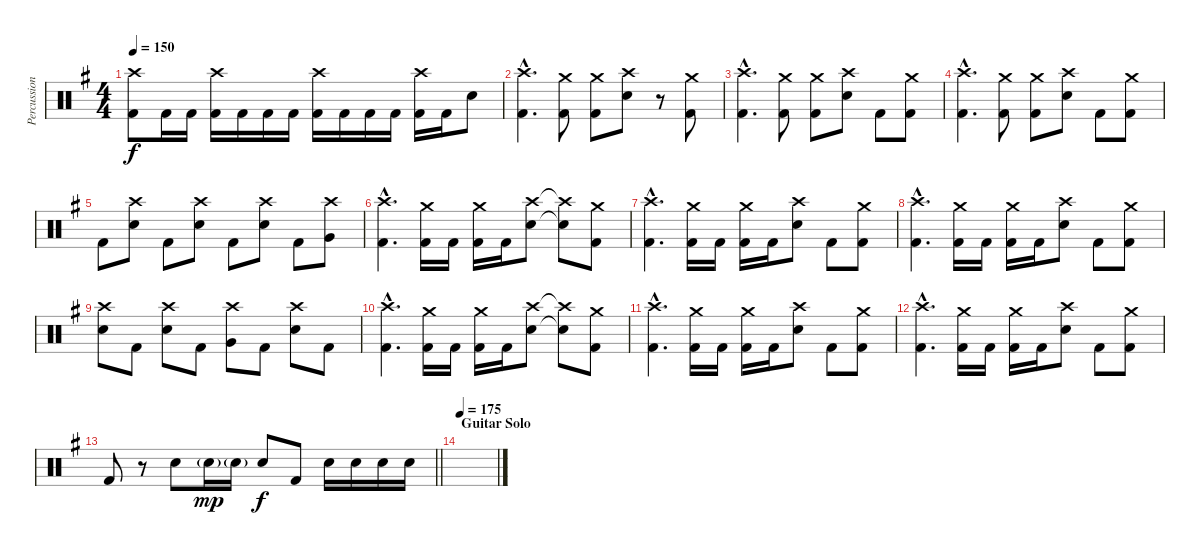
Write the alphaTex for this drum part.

\track ("Percussion" "Percussion") {instrument percussion}
\staff {score}
\articulation defaults
\ts (4 4)
\tempo 150
\clef neutral
\ks g
("Crash high (hit)" "Kick (hit) 2").8{dy f} "Kick (hit) 2".16 "Kick (hit) 2".16 ("Crash high (hit)" "Kick (hit) 2").16 "Kick (hit) 2".16 "Kick (hit) 2".16 "Kick (hit) 2".16 ("Crash high (hit)" "Kick (hit) 2").16 "Kick (hit) 2".16 "Kick (hit) 2".16 "Kick (hit) 2".16 ("Crash high (hit)" "Kick (hit) 2").16 "Kick (hit) 2".16 "Snare (hit) 2".8 |
("Crash high (hit)"{hac} "Kick (hit) 2"{hac}).4{d} ("Crash medium (hit)" "Kick (hit) 2").8 ("Crash medium (hit)" "Kick (hit) 2").8 ("Crash high (hit)" "Snare (hit) 2").8 r.8 ("Crash medium (hit)" "Kick (hit) 2").8 |
("Crash high (hit)"{hac} "Kick (hit) 2"{hac}).4{d} ("Crash medium (hit)" "Kick (hit) 2").8 ("Crash medium (hit)" "Kick (hit) 2").8 ("Crash high (hit)" "Snare (hit) 2").8 "Kick (hit) 2".8 ("Crash medium (hit)" "Kick (hit) 2").8 |
("Crash high (hit)"{hac} "Kick (hit) 2"{hac}).4{d} ("Crash medium (hit)" "Kick (hit) 2").8 ("Crash medium (hit)" "Kick (hit) 2").8 ("Crash high (hit)" "Snare (hit) 2").8 "Kick (hit) 2".8 ("Crash medium (hit)" "Kick (hit) 2").8 |
"Kick (hit) 2".8 ("Crash high (hit)" "Snare (hit) 2").8 "Kick (hit) 2".8 ("Crash high (hit)" "Snare (hit) 2").8 "Kick (hit) 2".8 ("Crash high (hit)" "Snare (hit) 2").8 "Kick (hit) 2".8 ("Crash high (hit)" "Very Low Tom (hit)").8 |
("Crash high (hit)"{hac} "Kick (hit) 2"{hac}).4{d} ("Crash medium (hit)" "Kick (hit) 2").16 "Kick (hit) 2".16 ("Crash medium (hit)" "Kick (hit) 2").16 "Kick (hit) 2".16 ("Crash high (hit)" "Snare (hit) 2").8 ("Crash high (hit)"{t} "Snare (hit) 2"{t}).8 ("Crash medium (hit)" "Kick (hit) 2").8 |
("Crash high (hit)"{hac} "Kick (hit) 2"{hac}).4{d} ("Crash medium (hit)" "Kick (hit) 2").16 "Kick (hit) 2".16 ("Crash medium (hit)" "Kick (hit) 2").16 "Kick (hit) 2".16 ("Crash high (hit)" "Snare (hit) 2").8 "Kick (hit) 2".8 ("Crash medium (hit)" "Kick (hit) 2").8 |
("Crash high (hit)"{hac} "Kick (hit) 2"{hac}).4{d} ("Crash medium (hit)" "Kick (hit) 2").16 "Kick (hit) 2".16 ("Crash medium (hit)" "Kick (hit) 2").16 "Kick (hit) 2".16 ("Crash high (hit)" "Snare (hit) 2").8 "Kick (hit) 2".8 ("Crash medium (hit)" "Kick (hit) 2").8 |
("Crash high (hit)" "Snare (hit) 2").8 "Kick (hit) 2".8 ("Crash high (hit)" "Snare (hit) 2").8 "Kick (hit) 2".8 ("Crash high (hit)" "Very Low Tom (hit)").8 "Kick (hit) 2".8 ("Crash high (hit)" "Snare (hit) 2").8 "Kick (hit) 2".8 |
("Crash high (hit)"{hac} "Kick (hit) 2"{hac}).4{d} ("Crash medium (hit)" "Kick (hit) 2").16 "Kick (hit) 2".16 ("Crash medium (hit)" "Kick (hit) 2").16 "Kick (hit) 2".16 ("Crash high (hit)" "Snare (hit) 2").8 ("Crash high (hit)"{t} "Snare (hit) 2"{t}).8 ("Crash medium (hit)" "Kick (hit) 2").8 |
("Crash high (hit)"{hac} "Kick (hit) 2"{hac}).4{d} ("Crash medium (hit)" "Kick (hit) 2").16 "Kick (hit) 2".16 ("Crash medium (hit)" "Kick (hit) 2").16 "Kick (hit) 2".16 ("Crash high (hit)" "Snare (hit) 2").8 "Kick (hit) 2".8 ("Crash medium (hit)" "Kick (hit) 2").8 |
("Crash high (hit)"{hac} "Kick (hit) 2"{hac}).4{d} ("Crash medium (hit)" "Kick (hit) 2").16 "Kick (hit) 2".16 ("Crash medium (hit)" "Kick (hit) 2").16 "Kick (hit) 2".16 ("Crash high (hit)" "Snare (hit) 2").8 "Kick (hit) 2".8 ("Crash medium (hit)" "Kick (hit) 2").8 |
\barLineRight lightlight "Kick (hit) 2".8
r.8 "Snare (hit) 2".8 "Snare (hit) 2"{g}.16{dy mp} "Snare (hit) 2"{g}.16 "Snare (hit) 2".8{dy f} "Kick (hit) 2".8 "Snare (hit) 2".16 "Snare (hit) 2".16 "Snare (hit) 2".16 "Snare (hit) 2".16 |
\section ("" "Guitar Solo")
\tempo 175
